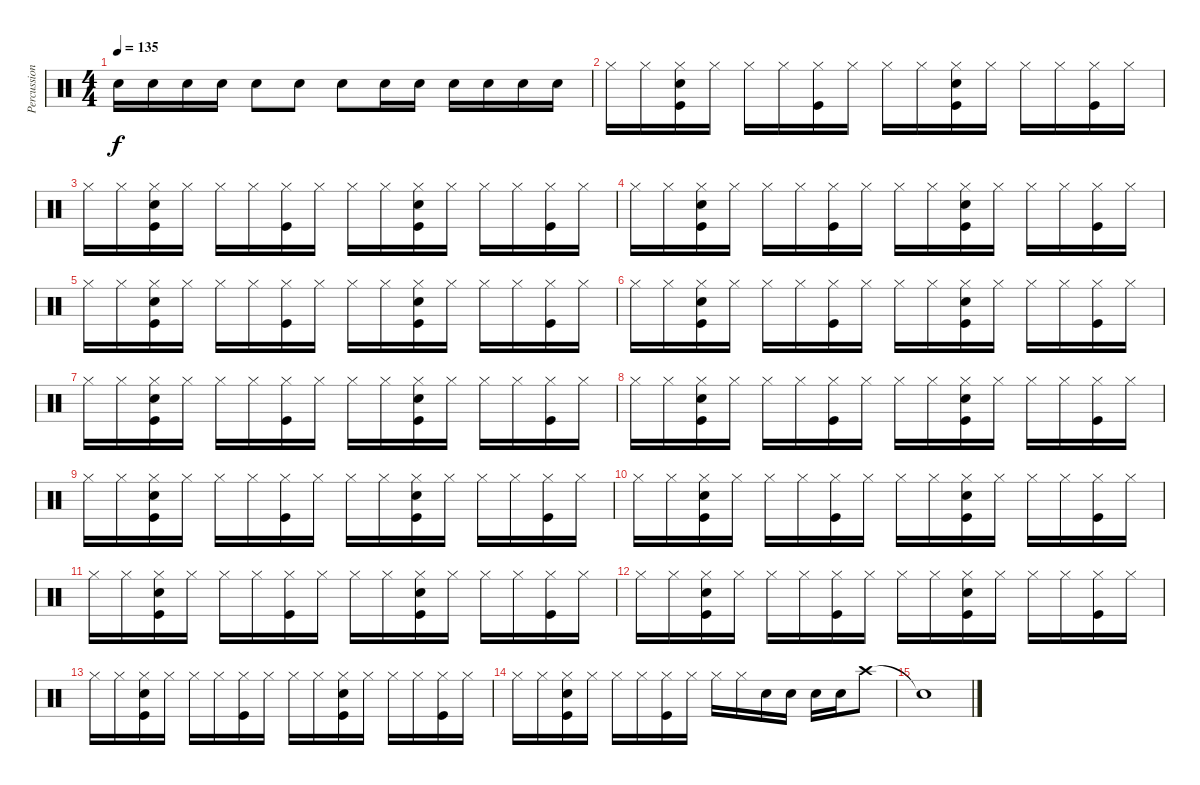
\track ("Percussion" "Percussion") {instrument percussion}
\staff {score}
\articulation defaults
\ts (4 4)
\tempo 135
\clef neutral
\ks c "Snare (hit) 2".16{dy f} "Snare (hit) 2".16 "Snare (hit) 2".16 "Snare (hit) 2".16 "Snare (hit) 2".8 "Snare (hit) 2".8 "Snare (hit) 2".8 "Snare (hit) 2".16 "Snare (hit) 2".16 "Snare (hit) 2".16 "Snare (hit) 2".16 "Snare (hit) 2".16 "Snare (hit) 2".16
|
"Hi-Hat (closed)".16 "Hi-Hat (closed)".16 ("Hi-Hat (closed)" "Snare (hit) 2" "Kick (hit)").16 "Hi-Hat (closed)".16 "Hi-Hat (closed)".16 "Hi-Hat (closed)".16 ("Hi-Hat (closed)" "Kick (hit)").16 "Hi-Hat (closed)".16 "Hi-Hat (closed)".16 "Hi-Hat (closed)".16 ("Hi-Hat (closed)" "Snare (hit) 2" "Kick (hit)").16 "Hi-Hat (closed)".16 "Hi-Hat (closed)".16 "Hi-Hat (closed)".16 ("Hi-Hat (closed)" "Kick (hit)").16 "Hi-Hat (closed)".16 |
"Hi-Hat (closed)".16 "Hi-Hat (closed)".16 ("Hi-Hat (closed)" "Snare (hit) 2" "Kick (hit)").16 "Hi-Hat (closed)".16 "Hi-Hat (closed)".16 "Hi-Hat (closed)".16 ("Hi-Hat (closed)" "Kick (hit)").16 "Hi-Hat (closed)".16 "Hi-Hat (closed)".16 "Hi-Hat (closed)".16 ("Hi-Hat (closed)" "Snare (hit) 2" "Kick (hit)").16 "Hi-Hat (closed)".16 "Hi-Hat (closed)".16 "Hi-Hat (closed)".16 ("Hi-Hat (closed)" "Kick (hit)").16 "Hi-Hat (closed)".16 |
"Hi-Hat (closed)".16 "Hi-Hat (closed)".16 ("Hi-Hat (closed)" "Snare (hit) 2" "Kick (hit)").16 "Hi-Hat (closed)".16 "Hi-Hat (closed)".16 "Hi-Hat (closed)".16 ("Hi-Hat (closed)" "Kick (hit)").16 "Hi-Hat (closed)".16 "Hi-Hat (closed)".16 "Hi-Hat (closed)".16 ("Hi-Hat (closed)" "Snare (hit) 2" "Kick (hit)").16 "Hi-Hat (closed)".16 "Hi-Hat (closed)".16 "Hi-Hat (closed)".16 ("Hi-Hat (closed)" "Kick (hit)").16 "Hi-Hat (closed)".16 |
"Hi-Hat (closed)".16 "Hi-Hat (closed)".16 ("Hi-Hat (closed)" "Snare (hit) 2" "Kick (hit)").16 "Hi-Hat (closed)".16 "Hi-Hat (closed)".16 "Hi-Hat (closed)".16 ("Hi-Hat (closed)" "Kick (hit)").16 "Hi-Hat (closed)".16 "Hi-Hat (closed)".16 "Hi-Hat (closed)".16 ("Hi-Hat (closed)" "Snare (hit) 2" "Kick (hit)").16 "Hi-Hat (closed)".16 "Hi-Hat (closed)".16 "Hi-Hat (closed)".16 ("Hi-Hat (closed)" "Kick (hit)").16 "Hi-Hat (closed)".16 |
"Hi-Hat (closed)".16 "Hi-Hat (closed)".16 ("Hi-Hat (closed)" "Snare (hit) 2" "Kick (hit)").16 "Hi-Hat (closed)".16 "Hi-Hat (closed)".16 "Hi-Hat (closed)".16 ("Hi-Hat (closed)" "Kick (hit)").16 "Hi-Hat (closed)".16 "Hi-Hat (closed)".16 "Hi-Hat (closed)".16 ("Hi-Hat (closed)" "Snare (hit) 2" "Kick (hit)").16 "Hi-Hat (closed)".16 "Hi-Hat (closed)".16 "Hi-Hat (closed)".16 ("Hi-Hat (closed)" "Kick (hit)").16 "Hi-Hat (closed)".16 |
"Hi-Hat (closed)".16 "Hi-Hat (closed)".16 ("Hi-Hat (closed)" "Snare (hit) 2" "Kick (hit)").16 "Hi-Hat (closed)".16 "Hi-Hat (closed)".16 "Hi-Hat (closed)".16 ("Hi-Hat (closed)" "Kick (hit)").16 "Hi-Hat (closed)".16 "Hi-Hat (closed)".16 "Hi-Hat (closed)".16 ("Hi-Hat (closed)" "Snare (hit) 2" "Kick (hit)").16 "Hi-Hat (closed)".16 "Hi-Hat (closed)".16 "Hi-Hat (closed)".16 ("Hi-Hat (closed)" "Kick (hit)").16 "Hi-Hat (closed)".16 |
"Hi-Hat (closed)".16 "Hi-Hat (closed)".16 ("Hi-Hat (closed)" "Snare (hit) 2" "Kick (hit)").16 "Hi-Hat (closed)".16 "Hi-Hat (closed)".16 "Hi-Hat (closed)".16 ("Hi-Hat (closed)" "Kick (hit)").16 "Hi-Hat (closed)".16 "Hi-Hat (closed)".16 "Hi-Hat (closed)".16 ("Hi-Hat (closed)" "Snare (hit) 2" "Kick (hit)").16 "Hi-Hat (closed)".16 "Hi-Hat (closed)".16 "Hi-Hat (closed)".16 ("Hi-Hat (closed)" "Kick (hit)").16 "Hi-Hat (closed)".16 |
"Hi-Hat (closed)".16 "Hi-Hat (closed)".16 ("Hi-Hat (closed)" "Snare (hit) 2" "Kick (hit)").16 "Hi-Hat (closed)".16 "Hi-Hat (closed)".16 "Hi-Hat (closed)".16 ("Hi-Hat (closed)" "Kick (hit)").16 "Hi-Hat (closed)".16 "Hi-Hat (closed)".16 "Hi-Hat (closed)".16 ("Hi-Hat (closed)" "Snare (hit) 2" "Kick (hit)").16 "Hi-Hat (closed)".16 "Hi-Hat (closed)".16 "Hi-Hat (closed)".16 ("Hi-Hat (closed)" "Kick (hit)").16 "Hi-Hat (closed)".16 |
"Hi-Hat (closed)".16 "Hi-Hat (closed)".16 ("Hi-Hat (closed)" "Snare (hit) 2" "Kick (hit)").16 "Hi-Hat (closed)".16 "Hi-Hat (closed)".16 "Hi-Hat (closed)".16 ("Hi-Hat (closed)" "Kick (hit)").16 "Hi-Hat (closed)".16 "Hi-Hat (closed)".16 "Hi-Hat (closed)".16 ("Hi-Hat (closed)" "Snare (hit) 2" "Kick (hit)").16 "Hi-Hat (closed)".16 "Hi-Hat (closed)".16 "Hi-Hat (closed)".16 ("Hi-Hat (closed)" "Kick (hit)").16 "Hi-Hat (closed)".16 |
"Hi-Hat (closed)".16 "Hi-Hat (closed)".16 ("Hi-Hat (closed)" "Snare (hit) 2" "Kick (hit)").16 "Hi-Hat (closed)".16 "Hi-Hat (closed)".16 "Hi-Hat (closed)".16 ("Hi-Hat (closed)" "Kick (hit)").16 "Hi-Hat (closed)".16 "Hi-Hat (closed)".16 "Hi-Hat (closed)".16 ("Hi-Hat (closed)" "Snare (hit) 2" "Kick (hit)").16 "Hi-Hat (closed)".16 "Hi-Hat (closed)".16 "Hi-Hat (closed)".16 ("Hi-Hat (closed)" "Kick (hit)").16 "Hi-Hat (closed)".16 |
"Hi-Hat (closed)".16 "Hi-Hat (closed)".16 ("Hi-Hat (closed)" "Snare (hit) 2" "Kick (hit)").16 "Hi-Hat (closed)".16 "Hi-Hat (closed)".16 "Hi-Hat (closed)".16 ("Hi-Hat (closed)" "Kick (hit)").16 "Hi-Hat (closed)".16 "Hi-Hat (closed)".16 "Hi-Hat (closed)".16 ("Hi-Hat (closed)" "Snare (hit) 2" "Kick (hit)").16 "Hi-Hat (closed)".16 "Hi-Hat (closed)".16 "Hi-Hat (closed)".16 ("Hi-Hat (closed)" "Kick (hit)").16 "Hi-Hat (closed)".16 |
"Hi-Hat (closed)".16 "Hi-Hat (closed)".16 ("Hi-Hat (closed)" "Snare (hit) 2" "Kick (hit)").16 "Hi-Hat (closed)".16 "Hi-Hat (closed)".16 "Hi-Hat (closed)".16 ("Hi-Hat (closed)" "Kick (hit)").16 "Hi-Hat (closed)".16 "Hi-Hat (closed)".16 "Hi-Hat (closed)".16 ("Hi-Hat (closed)" "Snare (hit) 2" "Kick (hit)").16 "Hi-Hat (closed)".16 "Hi-Hat (closed)".16 "Hi-Hat (closed)".16 ("Hi-Hat (closed)" "Kick (hit)").16 "Hi-Hat (closed)".16 |
"Hi-Hat (closed)".16 "Hi-Hat (closed)".16 ("Hi-Hat (closed)" "Snare (hit) 2" "Kick (hit)").16 "Hi-Hat (closed)".16 "Hi-Hat (closed)".16 "Hi-Hat (closed)".16 ("Hi-Hat (closed)" "Kick (hit)").16 "Hi-Hat (closed)".16 "Hi-Hat (closed)".16 "Hi-Hat (closed)".16 "Snare (hit) 2".16 "Snare (hit) 2".16 "Snare (hit) 2".16 "Snare (hit) 2".16 "Crash high (hit)".8 |
"Snare (hit)"{t}.1
